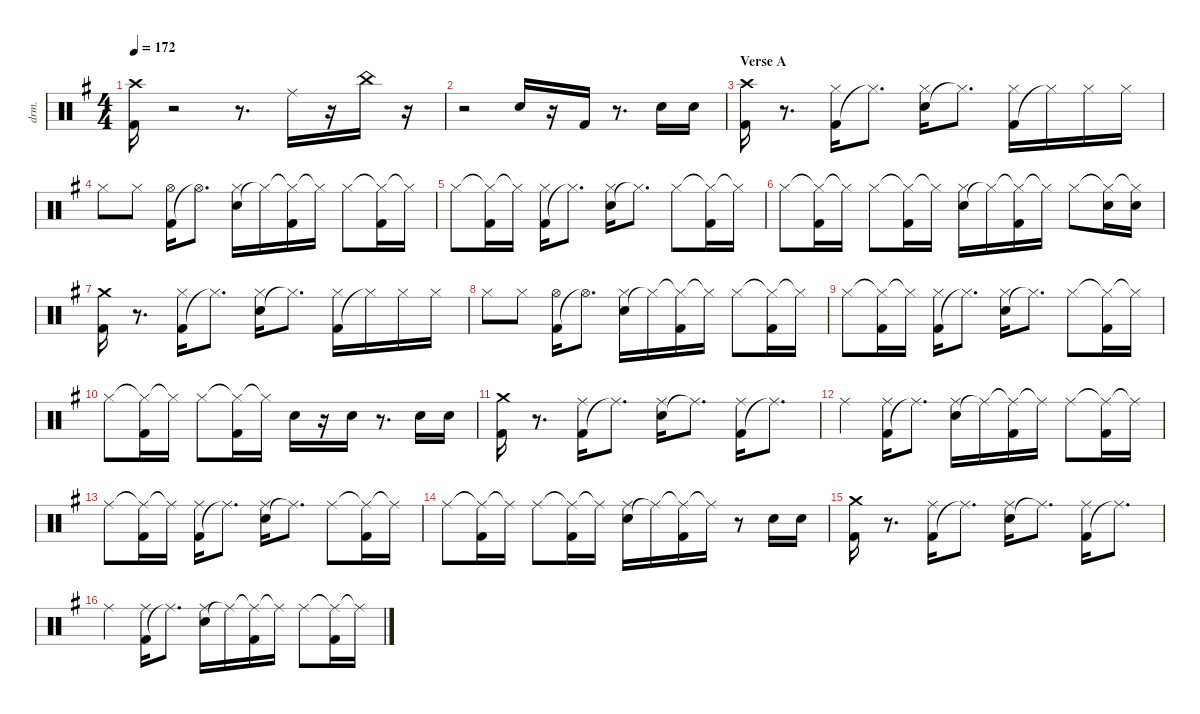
\defaultSystemsLayout 4
\hideDynamics
\bracketExtendMode nobrackets
\otherSystemsTrackNameOrientation horizontal
\track ("Shinya" "drm.") {instrument percussion}
\staff {score}
\articulation defaults
\ts (4 4)
\tempo 172
\clef neutral
\ks eminor
("Kick (hit) 2"{acc forcenatural} "Crash high (hit)"{acc #}).16{dy fff beam Down} r.2{beam Down} r.8{d beam Down} "Ride (middle)"{acc #}.16{beam Down} r.16{beam Down} "China (hit)"{acc forcenatural}.16{dy ff beam Down} r.16{beam Down} |
r.2{beam Down} "Snare (hit) 2"{acc forcenatural}.16{dy fff beam Up} r.16{beam Up} "Kick (hit) 2"{acc forcenatural}.16{beam Up} r.8{d beam Up} "Snare (hit) 2"{acc forcenatural}.16{beam Down} "Snare (hit) 2"{acc forcenatural}.16{beam Down} |
\section ("" "Verse A")
("Kick (hit) 2"{acc forcenatural} "Crash high (hit)"{acc #}).16{beam Down} r.8{d beam Down} ("Kick (hit) 2"{acc forcenatural} "Hi-Hat (closed)"{acc #}).16{beam Down} "Hi-Hat (closed)"{t acc #}.8{d beam Down} ("Snare (hit) 2"{acc forcenatural} "Hi-Hat (closed)"{acc #}).16{beam Down} "Hi-Hat (closed)"{t acc #}.8{d beam Down} ("Kick (hit) 2"{acc forcenatural} "Hi-Hat (closed)"{acc #}).16{beam Down} "Hi-Hat (closed)"{t acc #}.16{beam Down} "Hi-Hat (closed)"{acc #}.16{beam Down} "Hi-Hat (closed)"{acc #}.16{beam Down} |
"Hi-Hat (closed)"{acc #}.8{beam Down} "Hi-Hat (closed)"{acc #}.8{beam Down} ("Kick (hit) 2"{acc forcenatural} "Hi-Hat (open)"{acc #}).16{beam Down} "Hi-Hat (open)"{t acc #}.8{d beam Down} ("Snare (hit) 2"{acc forcenatural} "Hi-Hat (closed)"{acc #}).16{beam Down} "Hi-Hat (closed)"{t acc #}.16{beam Down} ("Hi-Hat (closed)"{t acc #} "Kick (hit) 2"{acc forcenatural}).16{beam Down} "Hi-Hat (closed)"{t acc #}.16{beam Down} "Hi-Hat (closed)"{acc #}.8{beam Down} ("Hi-Hat (closed)"{t acc #} "Kick (hit) 2"{acc forcenatural}).16{beam Down} "Hi-Hat (closed)"{t acc #}.16{beam Down} |
"Hi-Hat (closed)"{acc #}.8{beam Down} ("Hi-Hat (closed)"{t acc #} "Kick (hit) 2"{acc forcenatural}).16{beam Down} "Hi-Hat (closed)"{t acc #}.16{beam Down} ("Kick (hit) 2"{acc forcenatural} "Hi-Hat (closed)"{acc #}).16{beam Down} "Hi-Hat (closed)"{t acc #}.8{d beam Down} ("Snare (hit) 2"{acc forcenatural} "Hi-Hat (closed)"{acc #}).16{beam Down} "Hi-Hat (closed)"{t acc #}.8{d beam Down} "Hi-Hat (closed)"{acc #}.8{beam Down} ("Hi-Hat (closed)"{t acc #} "Kick (hit) 2"{acc forcenatural}).16{beam Down} "Hi-Hat (closed)"{t acc #}.16{beam Down} |
"Hi-Hat (closed)"{acc #}.8{beam Down} ("Hi-Hat (closed)"{t acc #} "Kick (hit) 2"{acc forcenatural}).16{beam Down} "Hi-Hat (closed)"{t acc #}.16{beam Down} "Hi-Hat (closed)"{acc #}.8{beam Down} ("Hi-Hat (closed)"{t acc #} "Kick (hit) 2"{acc forcenatural}).16{beam Down} "Hi-Hat (closed)"{t acc #}.16{beam Down} ("Snare (hit) 2"{acc forcenatural} "Hi-Hat (closed)"{acc #}).16{beam Down} "Hi-Hat (closed)"{t acc #}.16{beam Down} ("Hi-Hat (closed)"{t acc #} "Kick (hit) 2"{acc forcenatural}).16{beam Down} "Hi-Hat (closed)"{t acc #}.16{beam Down} "Hi-Hat (closed)"{acc #}.8{beam Down} ("Hi-Hat (closed)"{t acc #} "Snare (hit) 2"{acc forcenatural}).16{beam Down} ("Hi-Hat (closed)"{t acc #} "Snare (hit) 2"{acc forcenatural}).16{beam Down} |
("Kick (hit) 2"{acc forcenatural} "Crash medium (hit)"{acc forcenatural}).16{beam Down} r.8{d beam Down} ("Kick (hit) 2"{acc forcenatural} "Hi-Hat (closed)"{acc #}).16{beam Down} "Hi-Hat (closed)"{t acc #}.8{d beam Down} ("Snare (hit) 2"{acc forcenatural} "Hi-Hat (closed)"{acc #}).16{beam Down} "Hi-Hat (closed)"{t acc #}.8{d beam Down} ("Kick (hit) 2"{acc forcenatural} "Hi-Hat (closed)"{acc #}).16{beam Down} "Hi-Hat (closed)"{t acc #}.16{beam Down} "Hi-Hat (closed)"{acc #}.16{beam Down} "Hi-Hat (closed)"{acc #}.16{beam Down} |
"Hi-Hat (closed)"{acc #}.8{beam Down} "Hi-Hat (closed)"{acc #}.8{beam Down} ("Kick (hit) 2"{acc forcenatural} "Hi-Hat (open)"{acc #}).16{beam Down} "Hi-Hat (open)"{t acc #}.8{d beam Down} ("Snare (hit) 2"{acc forcenatural} "Hi-Hat (closed)"{acc #}).16{beam Down} "Hi-Hat (closed)"{t acc #}.16{beam Down} ("Hi-Hat (closed)"{t acc #} "Kick (hit) 2"{acc forcenatural}).16{beam Down} "Hi-Hat (closed)"{t acc #}.16{beam Down} "Hi-Hat (closed)"{acc #}.8{beam Down} ("Hi-Hat (closed)"{t acc #} "Kick (hit) 2"{acc forcenatural}).16{beam Down} "Hi-Hat (closed)"{t acc #}.16{beam Down} |
"Hi-Hat (closed)"{acc #}.8{beam Down} ("Hi-Hat (closed)"{t acc #} "Kick (hit) 2"{acc forcenatural}).16{beam Down} "Hi-Hat (closed)"{t acc #}.16{beam Down} ("Kick (hit) 2"{acc forcenatural} "Hi-Hat (closed)"{acc #}).16{beam Down} "Hi-Hat (closed)"{t acc #}.8{d beam Down} ("Snare (hit) 2"{acc forcenatural} "Hi-Hat (closed)"{acc #}).16{beam Down} "Hi-Hat (closed)"{t acc #}.8{d beam Down} "Hi-Hat (closed)"{acc #}.8{beam Down} ("Hi-Hat (closed)"{t acc #} "Kick (hit) 2"{acc forcenatural}).16{beam Down} "Hi-Hat (closed)"{t acc #}.16{beam Down} |
"Hi-Hat (closed)"{acc #}.8{beam Down} ("Hi-Hat (closed)"{t acc #} "Kick (hit) 2"{acc forcenatural}).16{beam Down} "Hi-Hat (closed)"{t acc #}.16{beam Down} "Hi-Hat (closed)"{acc #}.8{beam Down} ("Hi-Hat (closed)"{t acc #} "Kick (hit) 2"{acc forcenatural}).16{beam Down} "Hi-Hat (closed)"{t acc #}.16{beam Down} "Snare (hit) 2"{acc forcenatural}.16{beam Down} r.16{beam Down} "Snare (hit) 2"{acc forcenatural}.16{beam Down} r.8{d beam Down} "Snare (hit) 2"{acc forcenatural}.16{beam Down} "Snare (hit) 2"{acc forcenatural}.16{beam Down} |
("Kick (hit) 2"{acc forcenatural} "Crash medium (hit)"{acc forcenatural}).16{beam Down} r.8{d beam Down} ("Kick (hit) 2"{acc forcenatural} "Ride (middle)"{acc #}).16{beam Down} "Ride (middle)"{t acc #}.8{d beam Down} ("Snare (hit) 2"{acc forcenatural} "Ride (middle)"{acc #}).16{beam Down} "Ride (middle)"{t acc #}.8{d beam Down} ("Kick (hit) 2"{acc forcenatural} "Ride (middle)"{acc #}).16{beam Down} "Ride (middle)"{t acc #}.8{d beam Down} |
"Ride (middle)"{acc #}.4{beam Down} ("Kick (hit) 2"{acc forcenatural} "Ride (middle)"{acc #}).16{beam Down} "Ride (middle)"{t acc #}.8{d beam Down} ("Snare (hit) 2"{acc forcenatural} "Ride (middle)"{acc #}).16{beam Down} "Ride (middle)"{t acc #}.16{beam Down} ("Ride (middle)"{t acc #} "Kick (hit) 2"{acc forcenatural}).16{beam Down} "Ride (middle)"{t acc #}.16{beam Down} "Ride (middle)"{acc #}.8{beam Down} ("Ride (middle)"{t acc #} "Kick (hit) 2"{acc forcenatural}).16{beam Down} "Ride (middle)"{t acc #}.16{beam Down} |
"Ride (middle)"{acc #}.8{beam Down} ("Ride (middle)"{t acc #} "Kick (hit) 2"{acc forcenatural}).16{beam Down} "Ride (middle)"{t acc #}.16{beam Down} ("Kick (hit) 2"{acc forcenatural} "Ride (middle)"{acc #}).16{beam Down} "Ride (middle)"{t acc #}.8{d beam Down} ("Snare (hit) 2"{acc forcenatural} "Ride (middle)"{acc #}).16{beam Down} "Ride (middle)"{t acc #}.8{d beam Down} "Ride (middle)"{acc #}.8{beam Down} ("Ride (middle)"{t acc #} "Kick (hit) 2"{acc forcenatural}).16{beam Down} "Ride (middle)"{t acc #}.16{beam Down} |
"Ride (middle)"{acc #}.8{beam Down} ("Ride (middle)"{t acc #} "Kick (hit) 2"{acc forcenatural}).16{beam Down} "Ride (middle)"{t acc #}.16{beam Down} "Ride (middle)"{acc #}.8{beam Down} ("Ride (middle)"{t acc #} "Kick (hit) 2"{acc forcenatural}).16{beam Down} "Ride (middle)"{t acc #}.16{beam Down} ("Snare (hit) 2"{acc forcenatural} "Ride (middle)"{acc #}).16{beam Down} "Ride (middle)"{t acc #}.16{beam Down} ("Ride (middle)"{t acc #} "Kick (hit) 2"{acc forcenatural}).16{beam Down} "Ride (middle)"{t acc #}.16{beam Down} r.8{beam Down} "Snare (hit) 2"{acc forcenatural}.16{beam Down} "Snare (hit) 2"{acc forcenatural}.16{beam Down} |
("Kick (hit) 2"{acc forcenatural} "Crash medium (hit)"{acc forcenatural}).16{beam Down} r.8{d beam Down} ("Kick (hit) 2"{acc forcenatural} "Ride (middle)"{acc #}).16{beam Down} "Ride (middle)"{t acc #}.8{d beam Down} ("Snare (hit) 2"{acc forcenatural} "Ride (middle)"{acc #}).16{beam Down} "Ride (middle)"{t acc #}.8{d beam Down} ("Kick (hit) 2"{acc forcenatural} "Ride (middle)"{acc #}).16{beam Down} "Ride (middle)"{t acc #}.8{d beam Down} |
"Ride (middle)"{acc #}.4{beam Down} ("Kick (hit) 2"{acc forcenatural} "Ride (middle)"{acc #}).16{beam Down} "Ride (middle)"{t acc #}.8{d beam Down} ("Snare (hit) 2"{acc forcenatural} "Ride (middle)"{acc #}).16{beam Down} "Ride (middle)"{t acc #}.16{beam Down} ("Ride (middle)"{t acc #} "Kick (hit) 2"{acc forcenatural}).16{beam Down} "Ride (middle)"{t acc #}.16{beam Down} "Ride (middle)"{acc #}.8{beam Down} ("Ride (middle)"{t acc #} "Kick (hit) 2"{acc forcenatural}).16{beam Down} "Ride (middle)"{t acc #}.16{beam Down}
